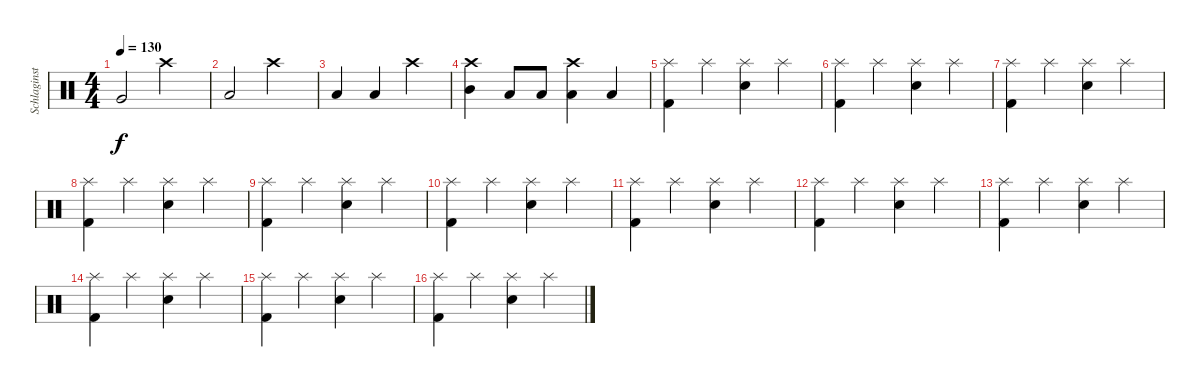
\track ("Schlaginstrumente - Auswahl" "Schlaginst") {instrument percussion}
\staff {score}
\articulation defaults
\ts (4 4)
\tempo 130
\clef neutral
\ks c "Very Low Tom (hit)".2{dy f} "Crash high (hit)".2
|
"Low Floor Tom (hit)".2 "Crash high (hit)".2 |
"Low Floor Tom (hit)".4 "Low Floor Tom (hit)".4 "Crash high (hit)".4 |
("Crash high (hit)" "Mid Tom (hit)").4 "Low Tom (hit)".8 "Low Tom (hit)".8 ("Crash high (hit)" "Low Floor Tom (hit)").4 "Low Floor Tom (hit)".4 |
("Kick (hit) 2" "Splash (hit)").4 "Splash (hit)".4 ("Snare (hit) 2" "Splash (hit)").4 "Splash (hit)".4 |
("Kick (hit) 2" "Splash (hit)").4 "Splash (hit)".4 ("Snare (hit) 2" "Splash (hit)").4 "Splash (hit)".4 |
("Kick (hit) 2" "Splash (hit)").4 "Splash (hit)".4 ("Snare (hit) 2" "Splash (hit)").4 "Splash (hit)".4 |
("Kick (hit) 2" "Splash (hit)").4 "Splash (hit)".4 ("Snare (hit) 2" "Splash (hit)").4 "Splash (hit)".4 |
("Kick (hit) 2" "Splash (hit)").4 "Splash (hit)".4 ("Snare (hit) 2" "Splash (hit)").4 "Splash (hit)".4 |
("Kick (hit) 2" "Splash (hit)").4 "Splash (hit)".4 ("Snare (hit) 2" "Splash (hit)").4 "Splash (hit)".4 |
("Kick (hit) 2" "Splash (hit)").4 "Splash (hit)".4 ("Snare (hit) 2" "Splash (hit)").4 "Splash (hit)".4 |
("Kick (hit) 2" "Splash (hit)").4 "Splash (hit)".4 ("Snare (hit) 2" "Splash (hit)").4 "Splash (hit)".4 |
("Kick (hit) 2" "Splash (hit)").4 "Splash (hit)".4 ("Snare (hit) 2" "Splash (hit)").4 "Splash (hit)".4 |
("Kick (hit) 2" "Splash (hit)").4 "Splash (hit)".4 ("Snare (hit) 2" "Splash (hit)").4 "Splash (hit)".4 |
("Kick (hit) 2" "Splash (hit)").4 "Splash (hit)".4 ("Snare (hit) 2" "Splash (hit)").4 "Splash (hit)".4 |
("Kick (hit) 2" "Splash (hit)").4 "Splash (hit)".4 ("Snare (hit) 2" "Splash (hit)").4 "Splash (hit)".4
